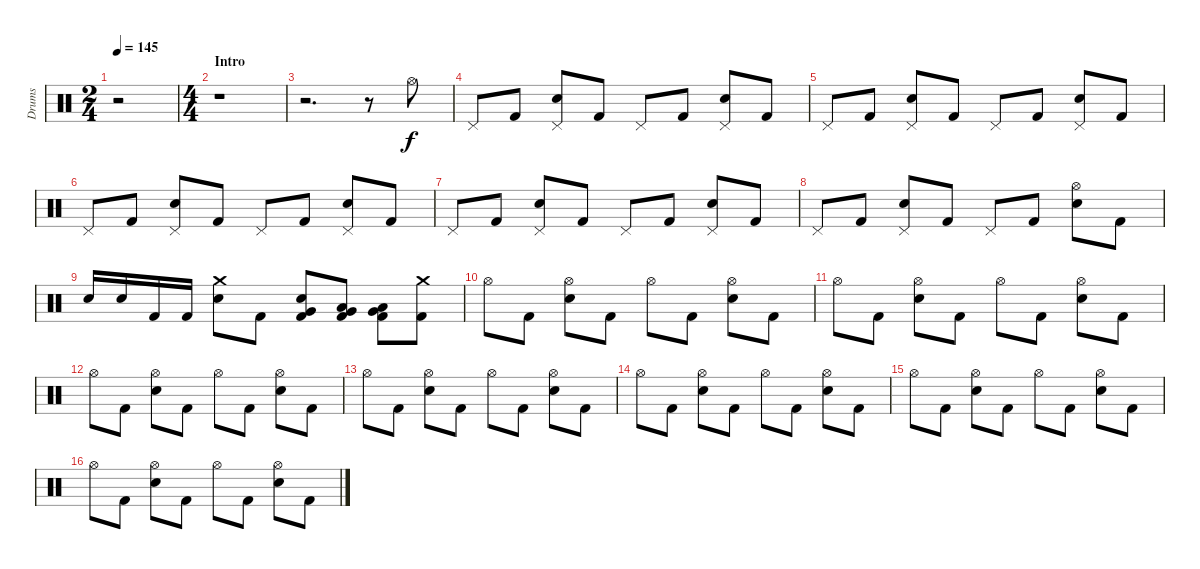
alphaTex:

\track ("Drums" "Drums") {instrument percussion}
\staff {score}
\articulation defaults
\ts (2 4)
\tempo 145
\clef neutral
\ks c
r.2{dy f} |
\ts (4 4)
\section ("" "Intro")
r.1 |
r.2{d} r.8 "Hi-Hat (open)".8 |
"Pedal Hi-Hat (hit)".8 "Kick (hit) 2".8 ("Pedal Hi-Hat (hit)" "Electric Snare (hit)").8 "Kick (hit) 2".8 "Pedal Hi-Hat (hit)".8 "Kick (hit) 2".8 ("Pedal Hi-Hat (hit)" "Electric Snare (hit)").8 "Kick (hit) 2".8 |
"Pedal Hi-Hat (hit)".8 "Kick (hit) 2".8 ("Pedal Hi-Hat (hit)" "Electric Snare (hit)").8 "Kick (hit) 2".8 "Pedal Hi-Hat (hit)".8 "Kick (hit) 2".8 ("Pedal Hi-Hat (hit)" "Electric Snare (hit)").8 "Kick (hit) 2".8 |
"Pedal Hi-Hat (hit)".8 "Kick (hit) 2".8 ("Pedal Hi-Hat (hit)" "Electric Snare (hit)").8 "Kick (hit) 2".8 "Pedal Hi-Hat (hit)".8 "Kick (hit) 2".8 ("Pedal Hi-Hat (hit)" "Electric Snare (hit)").8 "Kick (hit) 2".8 |
"Pedal Hi-Hat (hit)".8 "Kick (hit) 2".8 ("Pedal Hi-Hat (hit)" "Electric Snare (hit)").8 "Kick (hit) 2".8 "Pedal Hi-Hat (hit)".8 "Kick (hit) 2".8 ("Pedal Hi-Hat (hit)" "Electric Snare (hit)").8 "Kick (hit) 2".8 |
"Pedal Hi-Hat (hit)".8 "Kick (hit) 2".8 ("Pedal Hi-Hat (hit)" "Electric Snare (hit)").8 "Kick (hit) 2".8 "Pedal Hi-Hat (hit)".8 "Kick (hit) 2".8 ("Hi-Hat (open)" "Electric Snare (hit)").8 "Kick (hit) 2".8 |
"Electric Snare (hit)".16 "Electric Snare (hit)".16 "Kick (hit) 2".16 "Kick (hit) 2".16 ("Crash medium (hit)" "Electric Snare (hit)").8 "Kick (hit) 2".8 ("Kick (hit) 2" "Electric Snare (hit)" "Very Low Tom (hit)").8 ("Kick (hit) 2" "Low Floor Tom (hit)" "Very Low Tom (hit)").8 ("Kick (hit) 2" "Low Floor Tom (hit)" "Very Low Tom (hit)").8 ("Crash medium (hit)" "Kick (hit) 2").8 |
"Hi-Hat (open)".8 "Kick (hit) 2".8 ("Hi-Hat (open)" "Electric Snare (hit)").8 "Kick (hit) 2".8 "Hi-Hat (open)".8 "Kick (hit) 2".8 ("Hi-Hat (open)" "Electric Snare (hit)").8 "Kick (hit) 2".8 |
"Hi-Hat (open)".8 "Kick (hit) 2".8 ("Hi-Hat (open)" "Electric Snare (hit)").8 "Kick (hit) 2".8 "Hi-Hat (open)".8 "Kick (hit) 2".8 ("Hi-Hat (open)" "Electric Snare (hit)").8 "Kick (hit) 2".8 |
"Hi-Hat (open)".8 "Kick (hit) 2".8 ("Hi-Hat (open)" "Electric Snare (hit)").8 "Kick (hit) 2".8 "Hi-Hat (open)".8 "Kick (hit) 2".8 ("Hi-Hat (open)" "Electric Snare (hit)").8 "Kick (hit) 2".8 |
"Hi-Hat (open)".8 "Kick (hit) 2".8 ("Hi-Hat (open)" "Electric Snare (hit)").8 "Kick (hit) 2".8 "Hi-Hat (open)".8 "Kick (hit) 2".8 ("Hi-Hat (open)" "Electric Snare (hit)").8 "Kick (hit) 2".8 |
"Hi-Hat (open)".8 "Kick (hit) 2".8 ("Hi-Hat (open)" "Electric Snare (hit)").8 "Kick (hit) 2".8 "Hi-Hat (open)".8 "Kick (hit) 2".8 ("Hi-Hat (open)" "Electric Snare (hit)").8 "Kick (hit) 2".8 |
"Hi-Hat (open)".8 "Kick (hit) 2".8 ("Hi-Hat (open)" "Electric Snare (hit)").8 "Kick (hit) 2".8 "Hi-Hat (open)".8 "Kick (hit) 2".8 ("Hi-Hat (open)" "Electric Snare (hit)").8 "Kick (hit) 2".8 |
"Hi-Hat (open)".8 "Kick (hit) 2".8 ("Hi-Hat (open)" "Electric Snare (hit)").8 "Kick (hit) 2".8 "Hi-Hat (open)".8 "Kick (hit) 2".8 ("Hi-Hat (open)" "Electric Snare (hit)").8 "Kick (hit) 2".8
